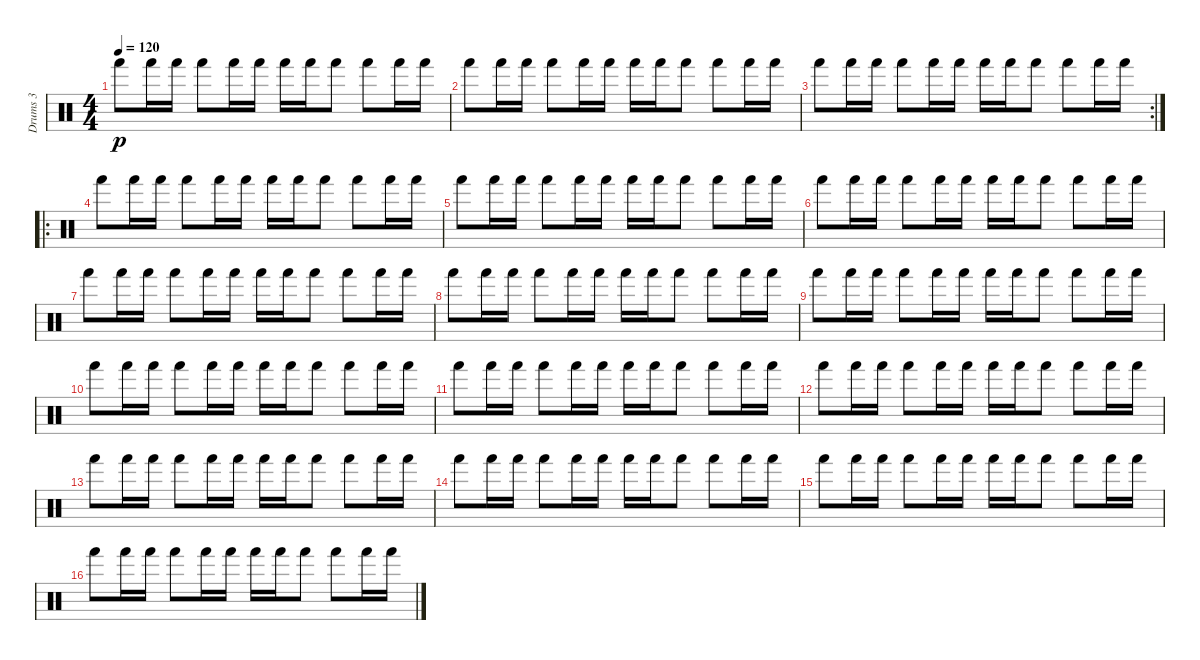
\track ("Drums 3" "Drums 3") {instrument percussion}
\staff {score}
\articulation defaults
\ts (4 4)
\tempo 120
\clef neutral
\ks c "Hand (hit)".8{dy p} "Hand (hit)".16 "Hand (hit)".16 "Hand (hit)".8 "Hand (hit)".16 "Hand (hit)".16 "Hand (hit)".16 "Hand (hit)".16 "Hand (hit)".8 "Hand (hit)".8 "Hand (hit)".16 "Hand (hit)".16
|
"Hand (hit)".8 "Hand (hit)".16 "Hand (hit)".16 "Hand (hit)".8 "Hand (hit)".16 "Hand (hit)".16 "Hand (hit)".16 "Hand (hit)".16 "Hand (hit)".8 "Hand (hit)".8 "Hand (hit)".16 "Hand (hit)".16 |
\rc 2 "Hand (hit)".8 "Hand (hit)".16 "Hand (hit)".16 "Hand (hit)".8 "Hand (hit)".16 "Hand (hit)".16 "Hand (hit)".16 "Hand (hit)".16 "Hand (hit)".8 "Hand (hit)".8 "Hand (hit)".16 "Hand (hit)".16
|
\ro "Hand (hit)".8 "Hand (hit)".16 "Hand (hit)".16 "Hand (hit)".8 "Hand (hit)".16 "Hand (hit)".16 "Hand (hit)".16 "Hand (hit)".16 "Hand (hit)".8 "Hand (hit)".8 "Hand (hit)".16 "Hand (hit)".16
|
"Hand (hit)".8 "Hand (hit)".16 "Hand (hit)".16 "Hand (hit)".8 "Hand (hit)".16 "Hand (hit)".16 "Hand (hit)".16 "Hand (hit)".16 "Hand (hit)".8 "Hand (hit)".8 "Hand (hit)".16 "Hand (hit)".16 |
"Hand (hit)".8 "Hand (hit)".16 "Hand (hit)".16 "Hand (hit)".8 "Hand (hit)".16 "Hand (hit)".16 "Hand (hit)".16 "Hand (hit)".16 "Hand (hit)".8 "Hand (hit)".8 "Hand (hit)".16 "Hand (hit)".16 |
"Hand (hit)".8 "Hand (hit)".16 "Hand (hit)".16 "Hand (hit)".8 "Hand (hit)".16 "Hand (hit)".16 "Hand (hit)".16 "Hand (hit)".16 "Hand (hit)".8 "Hand (hit)".8 "Hand (hit)".16 "Hand (hit)".16 |
"Hand (hit)".8 "Hand (hit)".16 "Hand (hit)".16 "Hand (hit)".8 "Hand (hit)".16 "Hand (hit)".16 "Hand (hit)".16 "Hand (hit)".16 "Hand (hit)".8 "Hand (hit)".8 "Hand (hit)".16 "Hand (hit)".16 |
"Hand (hit)".8 "Hand (hit)".16 "Hand (hit)".16 "Hand (hit)".8 "Hand (hit)".16 "Hand (hit)".16 "Hand (hit)".16 "Hand (hit)".16 "Hand (hit)".8 "Hand (hit)".8 "Hand (hit)".16 "Hand (hit)".16 |
"Hand (hit)".8 "Hand (hit)".16 "Hand (hit)".16 "Hand (hit)".8 "Hand (hit)".16 "Hand (hit)".16 "Hand (hit)".16 "Hand (hit)".16 "Hand (hit)".8 "Hand (hit)".8 "Hand (hit)".16 "Hand (hit)".16 |
"Hand (hit)".8 "Hand (hit)".16 "Hand (hit)".16 "Hand (hit)".8 "Hand (hit)".16 "Hand (hit)".16 "Hand (hit)".16 "Hand (hit)".16 "Hand (hit)".8 "Hand (hit)".8 "Hand (hit)".16 "Hand (hit)".16 |
"Hand (hit)".8 "Hand (hit)".16 "Hand (hit)".16 "Hand (hit)".8 "Hand (hit)".16 "Hand (hit)".16 "Hand (hit)".16 "Hand (hit)".16 "Hand (hit)".8 "Hand (hit)".8 "Hand (hit)".16 "Hand (hit)".16 |
"Hand (hit)".8 "Hand (hit)".16 "Hand (hit)".16 "Hand (hit)".8 "Hand (hit)".16 "Hand (hit)".16 "Hand (hit)".16 "Hand (hit)".16 "Hand (hit)".8 "Hand (hit)".8 "Hand (hit)".16 "Hand (hit)".16 |
"Hand (hit)".8 "Hand (hit)".16 "Hand (hit)".16 "Hand (hit)".8 "Hand (hit)".16 "Hand (hit)".16 "Hand (hit)".16 "Hand (hit)".16 "Hand (hit)".8 "Hand (hit)".8 "Hand (hit)".16 "Hand (hit)".16 |
"Hand (hit)".8 "Hand (hit)".16 "Hand (hit)".16 "Hand (hit)".8 "Hand (hit)".16 "Hand (hit)".16 "Hand (hit)".16 "Hand (hit)".16 "Hand (hit)".8 "Hand (hit)".8 "Hand (hit)".16 "Hand (hit)".16 |
"Hand (hit)".8 "Hand (hit)".16 "Hand (hit)".16 "Hand (hit)".8 "Hand (hit)".16 "Hand (hit)".16 "Hand (hit)".16 "Hand (hit)".16 "Hand (hit)".8 "Hand (hit)".8 "Hand (hit)".16 "Hand (hit)".16
